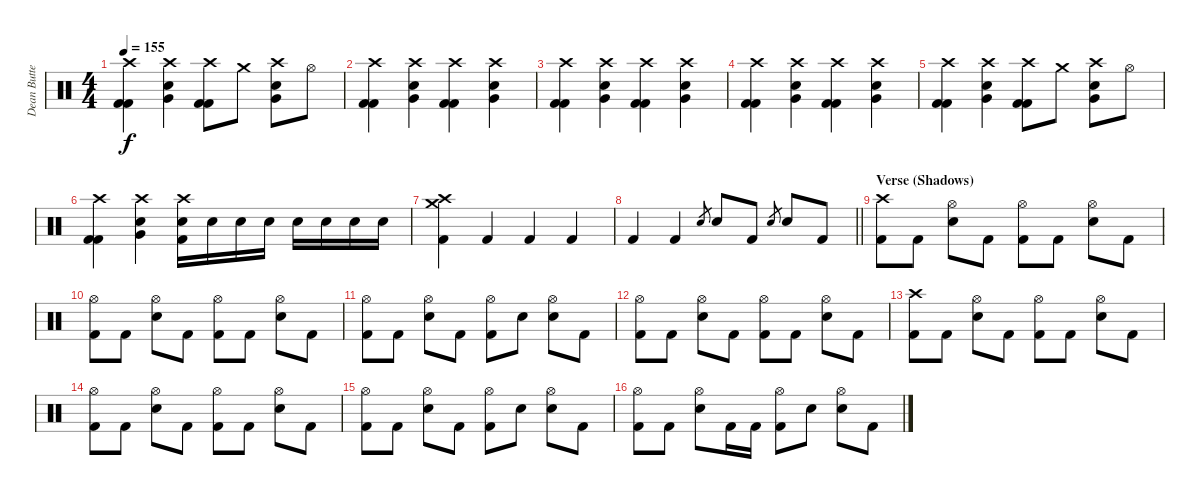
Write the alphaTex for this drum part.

\track ("Dean Butterworth [Drums]" "Dean Butte") {instrument percussion}
\staff {score}
\articulation defaults
\ts (4 4)
\tempo 155
\clef neutral
\ks c
("Crash high (hit)" "Kick (hit) 2" "Kick (hit) 2").4{dy f} ("Crash high (hit)" "Very Low Tom (hit)" "Electric Snare (hit)").4 ("Crash high (hit)" "Kick (hit) 2" "Kick (hit) 2").8 "Crash medium (hit)".8 ("Crash high (hit)" "Very Low Tom (hit)" "Electric Snare (hit)").8 "Hi-Hat (open)".8 |
("Crash high (hit)" "Kick (hit) 2" "Kick (hit) 2").4 ("Crash high (hit)" "Very Low Tom (hit)" "Electric Snare (hit)").4 ("Crash high (hit)" "Kick (hit) 2" "Kick (hit) 2").4 ("Crash high (hit)" "Very Low Tom (hit)" "Electric Snare (hit)").4 |
("Crash high (hit)" "Kick (hit) 2" "Kick (hit) 2").4 ("Crash high (hit)" "Very Low Tom (hit)" "Electric Snare (hit)").4 ("Crash high (hit)" "Kick (hit) 2" "Kick (hit) 2").4 ("Crash high (hit)" "Very Low Tom (hit)" "Electric Snare (hit)").4 |
("Crash high (hit)" "Kick (hit) 2" "Kick (hit) 2").4 ("Crash high (hit)" "Very Low Tom (hit)" "Electric Snare (hit)").4 ("Crash high (hit)" "Kick (hit) 2" "Kick (hit) 2").4 ("Crash high (hit)" "Very Low Tom (hit)" "Electric Snare (hit)").4 |
("Crash high (hit)" "Kick (hit) 2" "Kick (hit) 2").4 ("Crash high (hit)" "Very Low Tom (hit)" "Electric Snare (hit)").4 ("Crash high (hit)" "Kick (hit) 2" "Kick (hit) 2").8 "Crash medium (hit)".8 ("Crash high (hit)" "Very Low Tom (hit)" "Electric Snare (hit)").8 "Hi-Hat (open)".8 |
("Crash high (hit)" "Kick (hit) 2" "Kick (hit) 2").4 ("Crash high (hit)" "Very Low Tom (hit)" "Electric Snare (hit)").4 ("Crash high (hit)" "Electric Snare (hit)" "Kick (hit) 2").16 "Electric Snare (hit)".16 "Electric Snare (hit)".16 "Electric Snare (hit)".16 "Electric Snare (hit)".16 "Electric Snare (hit)".16 "Electric Snare (hit)".16 "Electric Snare (hit)".16 |
("Crash high (hit)" "Crash medium (hit)" "Kick (hit) 2").4 "Kick (hit) 2".4 "Kick (hit) 2".4 "Kick (hit) 2".4 |
\barLineRight lightlight "Kick (hit) 2".4 "Kick (hit) 2".4 "Electric Snare (hit)".8{gr} "Electric Snare (hit)".8 "Kick (hit) 2".8 "Electric Snare (hit)".8{gr} "Electric Snare (hit)".8 "Kick (hit) 2".8
|
\section ("" "Verse (Shadows)")
("Crash high (hit)" "Kick (hit) 2").8 "Kick (hit) 2".8 ("Hi-Hat (open)" "Electric Snare (hit)").8 "Kick (hit) 2".8 ("Hi-Hat (open)" "Kick (hit) 2").8 "Kick (hit) 2".8 ("Hi-Hat (open)" "Electric Snare (hit)").8 "Kick (hit) 2".8 |
("Hi-Hat (open)" "Kick (hit) 2").8 "Kick (hit) 2".8 ("Hi-Hat (open)" "Electric Snare (hit)").8 "Kick (hit) 2".8 ("Hi-Hat (open)" "Kick (hit) 2").8 "Kick (hit) 2".8 ("Hi-Hat (open)" "Electric Snare (hit)").8 "Kick (hit) 2".8 |
("Hi-Hat (open)" "Kick (hit) 2").8 "Kick (hit) 2".8 ("Hi-Hat (open)" "Electric Snare (hit)").8 "Kick (hit) 2".8 ("Hi-Hat (open)" "Kick (hit) 2").8 "Electric Snare (hit)".8 ("Hi-Hat (open)" "Electric Snare (hit)").8 "Kick (hit) 2".8 |
("Hi-Hat (open)" "Kick (hit) 2").8 "Kick (hit) 2".8 ("Hi-Hat (open)" "Electric Snare (hit)").8 "Kick (hit) 2".8 ("Hi-Hat (open)" "Kick (hit) 2").8 "Kick (hit) 2".8 ("Hi-Hat (open)" "Electric Snare (hit)").8 "Kick (hit) 2".8 |
("Crash high (hit)" "Kick (hit) 2").8 "Kick (hit) 2".8 ("Hi-Hat (open)" "Electric Snare (hit)").8 "Kick (hit) 2".8 ("Hi-Hat (open)" "Kick (hit) 2").8 "Kick (hit) 2".8 ("Hi-Hat (open)" "Electric Snare (hit)").8 "Kick (hit) 2".8 |
("Hi-Hat (open)" "Kick (hit) 2").8 "Kick (hit) 2".8 ("Hi-Hat (open)" "Electric Snare (hit)").8 "Kick (hit) 2".8 ("Hi-Hat (open)" "Kick (hit) 2").8 "Kick (hit) 2".8 ("Hi-Hat (open)" "Electric Snare (hit)").8 "Kick (hit) 2".8 |
("Hi-Hat (open)" "Kick (hit) 2").8 "Kick (hit) 2".8 ("Hi-Hat (open)" "Electric Snare (hit)").8 "Kick (hit) 2".8 ("Hi-Hat (open)" "Kick (hit) 2").8 "Electric Snare (hit)".8 ("Hi-Hat (open)" "Electric Snare (hit)").8 "Kick (hit) 2".8 |
("Hi-Hat (open)" "Kick (hit) 2").8 "Kick (hit) 2".8 ("Hi-Hat (open)" "Electric Snare (hit)").8 "Kick (hit) 2".16 "Kick (hit) 2".16 ("Hi-Hat (open)" "Kick (hit) 2").8 "Electric Snare (hit)".8 ("Hi-Hat (open)" "Electric Snare (hit)").8 "Kick (hit) 2".8
